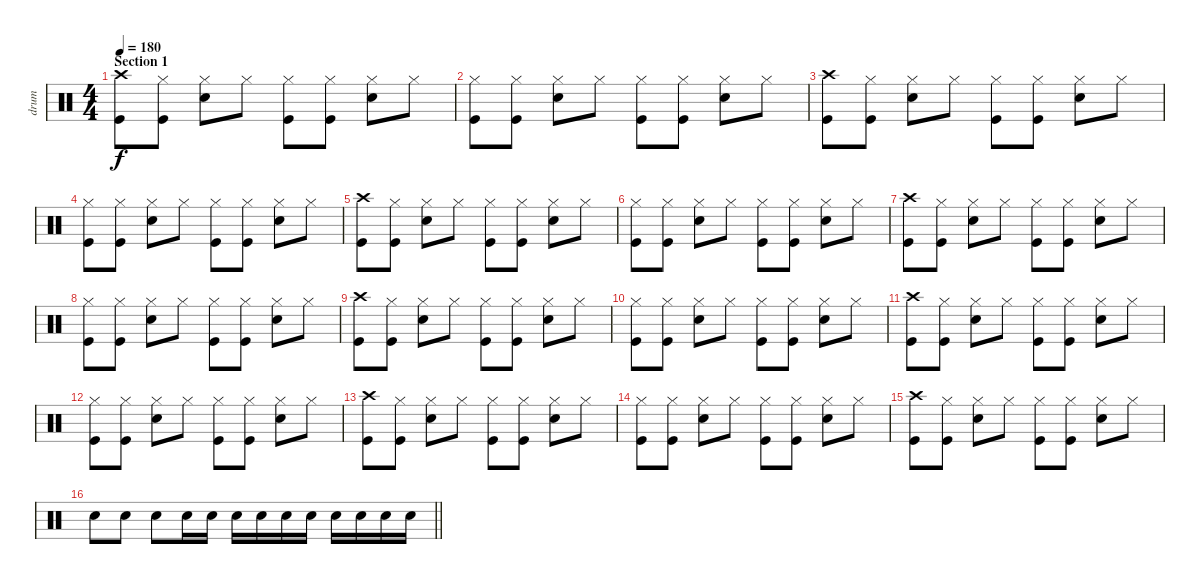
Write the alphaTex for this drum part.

\track ("drum" "drum") {instrument percussion}
\staff {score}
\articulation defaults
\ts (4 4)
\section ("" "Section 1")
\tempo 180
\clef neutral
\ks c
("Crash high (hit)" "Kick (hit)").8{dy f} ("Kick (hit)" "Hi-Hat (closed)").8 ("Snare (hit) 2" "Hi-Hat (closed)").8 "Hi-Hat (closed)".8 ("Kick (hit)" "Hi-Hat (closed)").8 ("Kick (hit)" "Hi-Hat (closed)").8 ("Snare (hit) 2" "Hi-Hat (closed)").8 "Hi-Hat (closed)".8 |
("Hi-Hat (closed)" "Kick (hit)").8 ("Kick (hit)" "Hi-Hat (closed)").8 ("Snare (hit) 2" "Hi-Hat (closed)").8 "Hi-Hat (closed)".8 ("Kick (hit)" "Hi-Hat (closed)").8 ("Kick (hit)" "Hi-Hat (closed)").8 ("Snare (hit) 2" "Hi-Hat (closed)").8 "Hi-Hat (closed)".8 |
("Crash high (hit)" "Kick (hit)").8 ("Kick (hit)" "Hi-Hat (closed)").8 ("Snare (hit) 2" "Hi-Hat (closed)").8 "Hi-Hat (closed)".8 ("Kick (hit)" "Hi-Hat (closed)").8 ("Kick (hit)" "Hi-Hat (closed)").8 ("Snare (hit) 2" "Hi-Hat (closed)").8 "Hi-Hat (closed)".8 |
("Hi-Hat (closed)" "Kick (hit)").8 ("Kick (hit)" "Hi-Hat (closed)").8 ("Snare (hit) 2" "Hi-Hat (closed)").8 "Hi-Hat (closed)".8 ("Kick (hit)" "Hi-Hat (closed)").8 ("Kick (hit)" "Hi-Hat (closed)").8 ("Snare (hit) 2" "Hi-Hat (closed)").8 "Hi-Hat (closed)".8 |
("Crash high (hit)" "Kick (hit)").8 ("Kick (hit)" "Hi-Hat (closed)").8 ("Snare (hit) 2" "Hi-Hat (closed)").8 "Hi-Hat (closed)".8 ("Kick (hit)" "Hi-Hat (closed)").8 ("Kick (hit)" "Hi-Hat (closed)").8 ("Snare (hit) 2" "Hi-Hat (closed)").8 "Hi-Hat (closed)".8 |
("Hi-Hat (closed)" "Kick (hit)").8 ("Kick (hit)" "Hi-Hat (closed)").8 ("Snare (hit) 2" "Hi-Hat (closed)").8 "Hi-Hat (closed)".8 ("Kick (hit)" "Hi-Hat (closed)").8 ("Kick (hit)" "Hi-Hat (closed)").8 ("Snare (hit) 2" "Hi-Hat (closed)").8 "Hi-Hat (closed)".8 |
("Crash high (hit)" "Kick (hit)").8 ("Kick (hit)" "Hi-Hat (closed)").8 ("Snare (hit) 2" "Hi-Hat (closed)").8 "Hi-Hat (closed)".8 ("Kick (hit)" "Hi-Hat (closed)").8 ("Kick (hit)" "Hi-Hat (closed)").8 ("Snare (hit) 2" "Hi-Hat (closed)").8 "Hi-Hat (closed)".8 |
("Hi-Hat (closed)" "Kick (hit)").8 ("Kick (hit)" "Hi-Hat (closed)").8 ("Snare (hit) 2" "Hi-Hat (closed)").8 "Hi-Hat (closed)".8 ("Kick (hit)" "Hi-Hat (closed)").8 ("Kick (hit)" "Hi-Hat (closed)").8 ("Snare (hit) 2" "Hi-Hat (closed)").8 "Hi-Hat (closed)".8 |
("Crash high (hit)" "Kick (hit)").8 ("Kick (hit)" "Hi-Hat (closed)").8 ("Snare (hit) 2" "Hi-Hat (closed)").8 "Hi-Hat (closed)".8 ("Kick (hit)" "Hi-Hat (closed)").8 ("Kick (hit)" "Hi-Hat (closed)").8 ("Snare (hit) 2" "Hi-Hat (closed)").8 "Hi-Hat (closed)".8 |
("Hi-Hat (closed)" "Kick (hit)").8 ("Kick (hit)" "Hi-Hat (closed)").8 ("Snare (hit) 2" "Hi-Hat (closed)").8 "Hi-Hat (closed)".8 ("Kick (hit)" "Hi-Hat (closed)").8 ("Kick (hit)" "Hi-Hat (closed)").8 ("Snare (hit) 2" "Hi-Hat (closed)").8 "Hi-Hat (closed)".8 |
("Crash high (hit)" "Kick (hit)").8 ("Kick (hit)" "Hi-Hat (closed)").8 ("Snare (hit) 2" "Hi-Hat (closed)").8 "Hi-Hat (closed)".8 ("Kick (hit)" "Hi-Hat (closed)").8 ("Kick (hit)" "Hi-Hat (closed)").8 ("Snare (hit) 2" "Hi-Hat (closed)").8 "Hi-Hat (closed)".8 |
("Hi-Hat (closed)" "Kick (hit)").8 ("Kick (hit)" "Hi-Hat (closed)").8 ("Snare (hit) 2" "Hi-Hat (closed)").8 "Hi-Hat (closed)".8 ("Kick (hit)" "Hi-Hat (closed)").8 ("Kick (hit)" "Hi-Hat (closed)").8 ("Snare (hit) 2" "Hi-Hat (closed)").8 "Hi-Hat (closed)".8 |
("Crash high (hit)" "Kick (hit)").8 ("Kick (hit)" "Hi-Hat (closed)").8 ("Snare (hit) 2" "Hi-Hat (closed)").8 "Hi-Hat (closed)".8 ("Kick (hit)" "Hi-Hat (closed)").8 ("Kick (hit)" "Hi-Hat (closed)").8 ("Snare (hit) 2" "Hi-Hat (closed)").8 "Hi-Hat (closed)".8 |
("Hi-Hat (closed)" "Kick (hit)").8 ("Kick (hit)" "Hi-Hat (closed)").8 ("Snare (hit) 2" "Hi-Hat (closed)").8 "Hi-Hat (closed)".8 ("Kick (hit)" "Hi-Hat (closed)").8 ("Kick (hit)" "Hi-Hat (closed)").8 ("Snare (hit) 2" "Hi-Hat (closed)").8 "Hi-Hat (closed)".8 |
("Crash high (hit)" "Kick (hit)").8 ("Kick (hit)" "Hi-Hat (closed)").8 ("Snare (hit) 2" "Hi-Hat (closed)").8 "Hi-Hat (closed)".8 ("Kick (hit)" "Hi-Hat (closed)").8 ("Kick (hit)" "Hi-Hat (closed)").8 ("Snare (hit) 2" "Hi-Hat (closed)").8 "Hi-Hat (closed)".8 |
\barLineRight lightlight "Snare (hit) 2".8 "Snare (hit) 2".8 "Snare (hit) 2".8 "Snare (hit) 2".16 "Snare (hit) 2".16 "Snare (hit) 2".16 "Snare (hit) 2".16 "Snare (hit) 2".16 "Snare (hit) 2".16 "Snare (hit) 2".16 "Snare (hit) 2".16 "Snare (hit) 2".16 "Snare (hit) 2".16
